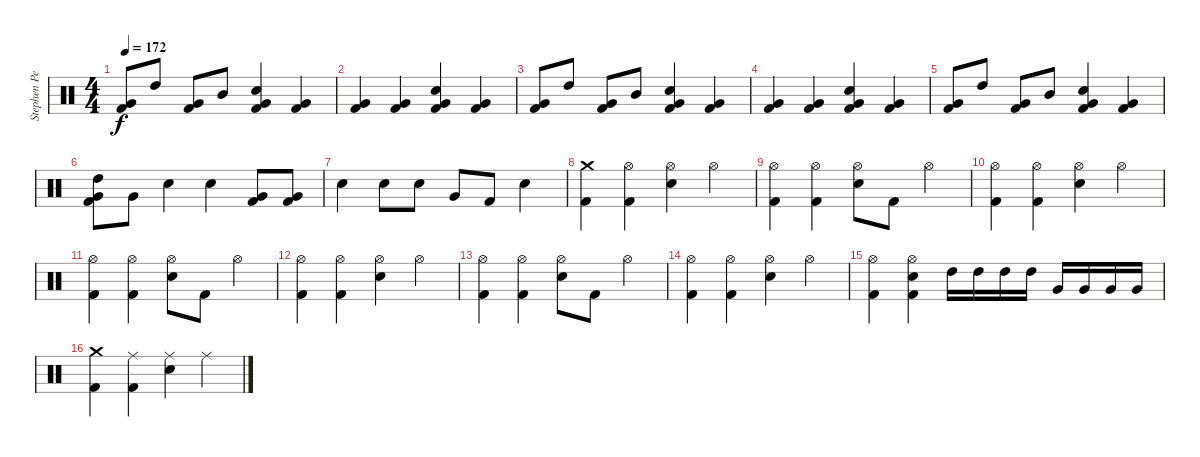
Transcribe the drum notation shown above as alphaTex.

\track ("Stephen Perkins" "Stephen Pe") {instrument percussion}
\staff {score}
\articulation defaults
\ts (4 4)
\tempo 172
\clef neutral
\ks c
("Very Low Tom (hit)" "Kick (hit) 2").8{dy f} "High Tom (hit)".8 ("Very Low Tom (hit)" "Kick (hit) 2").8 "Mid Tom (hit)".8 ("Snare (hit) 2" "Very Low Tom (hit)" "Kick (hit) 2").4 ("Very Low Tom (hit)" "Kick (hit) 2").4 |
("Very Low Tom (hit)" "Kick (hit) 2").4 ("Very Low Tom (hit)" "Kick (hit) 2").4 ("Snare (hit) 2" "Very Low Tom (hit)" "Kick (hit) 2").4 ("Very Low Tom (hit)" "Kick (hit) 2").4 |
("Very Low Tom (hit)" "Kick (hit) 2").8 "High Tom (hit)".8 ("Very Low Tom (hit)" "Kick (hit) 2").8 "Mid Tom (hit)".8 ("Snare (hit) 2" "Very Low Tom (hit)" "Kick (hit) 2").4 ("Very Low Tom (hit)" "Kick (hit) 2").4 |
("Very Low Tom (hit)" "Kick (hit) 2").4 ("Very Low Tom (hit)" "Kick (hit) 2").4 ("Snare (hit) 2" "Very Low Tom (hit)" "Kick (hit) 2").4 ("Very Low Tom (hit)" "Kick (hit) 2").4 |
("Very Low Tom (hit)" "Kick (hit) 2").8 "High Tom (hit)".8 ("Very Low Tom (hit)" "Kick (hit) 2").8 "Mid Tom (hit)".8 ("Snare (hit) 2" "Very Low Tom (hit)" "Kick (hit) 2").4 ("Very Low Tom (hit)" "Kick (hit) 2").4 |
("High Tom (hit)" "Very Low Tom (hit)" "Kick (hit) 2").8 "Very Low Tom (hit)".8 "Snare (hit) 2".4 "Snare (hit) 2".4 ("Very Low Tom (hit)" "Kick (hit) 2").8 ("Very Low Tom (hit)" "Kick (hit) 2").8 |
"Snare (hit) 2".4 "Snare (hit) 2".8 "Snare (hit) 2".8 "Very Low Tom (hit)".8 "Kick (hit) 2".8 "Snare (hit) 2".4 |
("Crash medium (hit)" "Kick (hit) 2").4 ("Hi-Hat (open)" "Kick (hit) 2").4 ("Hi-Hat (open)" "Snare (hit) 2").4 "Hi-Hat (open)".4 |
("Hi-Hat (open)" "Kick (hit) 2").4 ("Hi-Hat (open)" "Kick (hit) 2").4 ("Hi-Hat (open)" "Snare (hit) 2").8 "Kick (hit) 2".8 "Hi-Hat (open)".4 |
("Hi-Hat (open)" "Kick (hit) 2").4 ("Hi-Hat (open)" "Kick (hit) 2").4 ("Hi-Hat (open)" "Snare (hit) 2").4 "Hi-Hat (open)".4 |
("Hi-Hat (open)" "Kick (hit) 2").4 ("Hi-Hat (open)" "Kick (hit) 2").4 ("Hi-Hat (open)" "Snare (hit) 2").8 "Kick (hit) 2".8 "Hi-Hat (open)".4 |
("Hi-Hat (open)" "Kick (hit) 2").4 ("Hi-Hat (open)" "Kick (hit) 2").4 ("Hi-Hat (open)" "Snare (hit) 2").4 "Hi-Hat (open)".4 |
("Hi-Hat (open)" "Kick (hit) 2").4 ("Hi-Hat (open)" "Kick (hit) 2").4 ("Hi-Hat (open)" "Snare (hit) 2").8 "Kick (hit) 2".8 "Hi-Hat (open)".4 |
("Hi-Hat (open)" "Kick (hit) 2").4 ("Hi-Hat (open)" "Kick (hit) 2").4 ("Hi-Hat (open)" "Snare (hit) 2").4 "Hi-Hat (open)".4 |
("Hi-Hat (open)" "Kick (hit) 2").4 ("Hi-Hat (open)" "Snare (hit) 2" "Kick (hit) 2").4 "High Tom (hit)".16 "High Tom (hit)".16 "High Tom (hit)".16 "High Tom (hit)".16 "Very Low Tom (hit)".16 "Very Low Tom (hit)".16 "Very Low Tom (hit)".16 "Very Low Tom (hit)".16 |
("Crash medium (hit)" "Kick (hit) 2").4 ("Ride (middle)" "Kick (hit) 2").4 ("Ride (middle)" "Snare (hit) 2").4 "Ride (middle)".4
